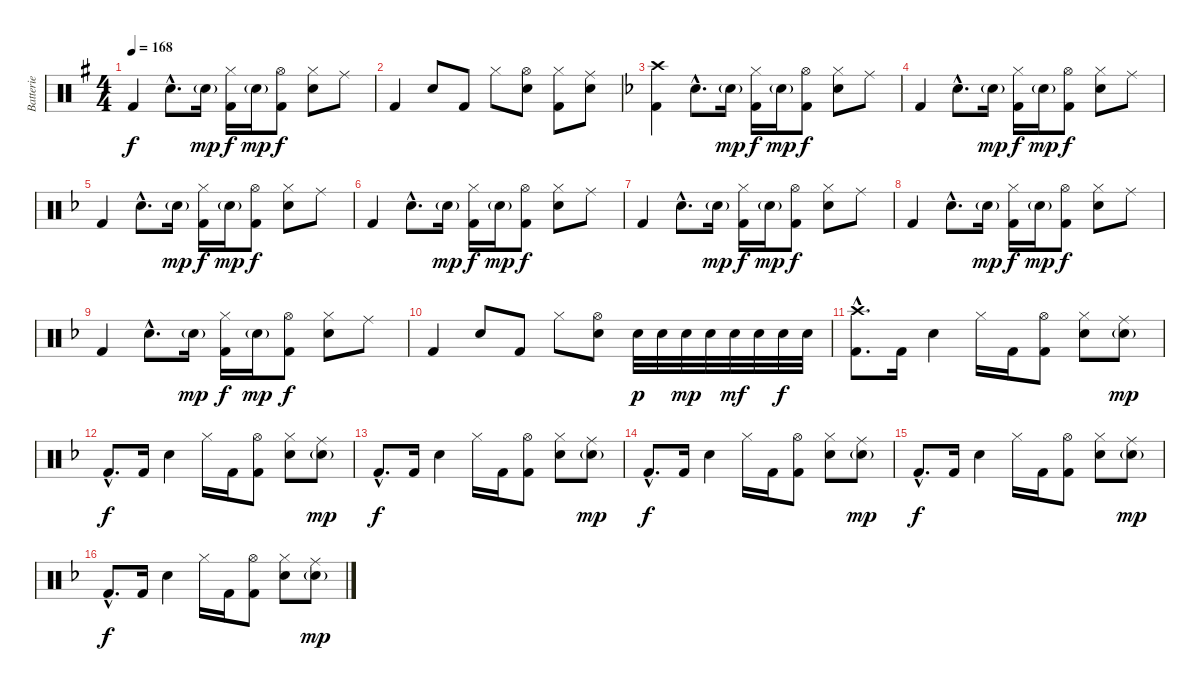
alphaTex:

\track ("Batterie" "Batterie") {instrument percussion}
\staff {score}
\articulation defaults
\ts (4 4)
\tempo 168
\clef neutral
\ks g "Kick (hit) 2".4{dy f} "Snare (hit) 2"{hac}.8{d} "Snare (hit) 2"{g}.16{dy mp}
("Hi-Hat (closed)" "Kick (hit) 2").16{dy f} "Snare (hit) 2"{g}.16{dy mp} ("Hi-Hat (open)" "Kick (hit) 2").8{dy f} ("Hi-Hat (closed)" "Snare (hit) 2").8 "Ride (middle)".8 |
"Kick (hit) 2".4 "Snare (hit) 2".8 "Kick (hit) 2".8 "Hi-Hat (closed)".8 ("Hi-Hat (open)" "Snare (hit) 2").8 ("Hi-Hat (closed)" "Kick (hit) 2").8 ("Ride (middle)" "Snare (hit) 2").8 |
\ks f
("Crash high (hit)" "Kick (hit) 2").4 "Snare (hit) 2"{hac}.8{d} "Snare (hit) 2"{g}.16{dy mp} ("Hi-Hat (closed)" "Kick (hit) 2").16{dy f} "Snare (hit) 2"{g}.16{dy mp} ("Hi-Hat (open)" "Kick (hit) 2").8{dy f} ("Hi-Hat (closed)" "Snare (hit) 2").8 "Ride (middle)".8 |
"Kick (hit) 2".4 "Snare (hit) 2"{hac}.8{d} "Snare (hit) 2"{g}.16{dy mp} ("Hi-Hat (closed)" "Kick (hit) 2").16{dy f} "Snare (hit) 2"{g}.16{dy mp} ("Hi-Hat (open)" "Kick (hit) 2").8{dy f} ("Hi-Hat (closed)" "Snare (hit) 2").8 "Ride (middle)".8 |
"Kick (hit) 2".4 "Snare (hit) 2"{hac}.8{d} "Snare (hit) 2"{g}.16{dy mp} ("Hi-Hat (closed)" "Kick (hit) 2").16{dy f} "Snare (hit) 2"{g}.16{dy mp} ("Hi-Hat (open)" "Kick (hit) 2").8{dy f} ("Hi-Hat (closed)" "Snare (hit) 2").8 "Ride (middle)".8 |
"Kick (hit) 2".4 "Snare (hit) 2"{hac}.8{d} "Snare (hit) 2"{g}.16{dy mp} ("Hi-Hat (closed)" "Kick (hit) 2").16{dy f} "Snare (hit) 2"{g}.16{dy mp} ("Hi-Hat (open)" "Kick (hit) 2").8{dy f} ("Hi-Hat (closed)" "Snare (hit) 2").8 "Ride (middle)".8 |
"Kick (hit) 2".4 "Snare (hit) 2"{hac}.8{d} "Snare (hit) 2"{g}.16{dy mp} ("Hi-Hat (closed)" "Kick (hit) 2").16{dy f} "Snare (hit) 2"{g}.16{dy mp} ("Hi-Hat (open)" "Kick (hit) 2").8{dy f} ("Hi-Hat (closed)" "Snare (hit) 2").8 "Ride (middle)".8 |
"Kick (hit) 2".4 "Snare (hit) 2"{hac}.8{d} "Snare (hit) 2"{g}.16{dy mp} ("Hi-Hat (closed)" "Kick (hit) 2").16{dy f} "Snare (hit) 2"{g}.16{dy mp} ("Hi-Hat (open)" "Kick (hit) 2").8{dy f} ("Hi-Hat (closed)" "Snare (hit) 2").8 "Ride (middle)".8 |
"Kick (hit) 2".4 "Snare (hit) 2"{hac}.8{d} "Snare (hit) 2"{g}.16{dy mp} ("Hi-Hat (closed)" "Kick (hit) 2").16{dy f} "Snare (hit) 2"{g}.16{dy mp} ("Hi-Hat (open)" "Kick (hit) 2").8{dy f} ("Hi-Hat (closed)" "Snare (hit) 2").8 "Ride (middle)".8 |
"Kick (hit) 2".4 "Snare (hit) 2".8 "Kick (hit) 2".8 "Hi-Hat (closed)".8 ("Hi-Hat (open)" "Snare (hit) 2").8 "Snare (hit) 2".32{dy p} "Snare (hit) 2".32 "Snare (hit) 2".32{dy mp} "Snare (hit) 2".32 "Snare (hit) 2".32{dy mf} "Snare (hit) 2".32 "Snare (hit) 2".32{dy f} "Snare (hit) 2".32 |
("Crash high (hit)"{hac} "Kick (hit) 2"{hac}).8{d} "Kick (hit) 2".16 "Snare (hit) 2".4 "Hi-Hat (closed)".16 "Kick (hit) 2".16 ("Hi-Hat (open)" "Kick (hit) 2").8 ("Hi-Hat (closed)" "Snare (hit) 2").8 ("Ride (middle)" "Snare (hit) 2"{g}).8{dy mp} |
"Kick (hit) 2"{hac}.8{d dy f} "Kick (hit) 2".16 "Snare (hit) 2".4 "Hi-Hat (closed)".16 "Kick (hit) 2".16 ("Hi-Hat (open)" "Kick (hit) 2").8 ("Hi-Hat (closed)" "Snare (hit) 2").8 ("Ride (middle)" "Snare (hit) 2"{g}).8{dy mp} |
"Kick (hit) 2"{hac}.8{d dy f} "Kick (hit) 2".16 "Snare (hit) 2".4 "Hi-Hat (closed)".16 "Kick (hit) 2".16 ("Hi-Hat (open)" "Kick (hit) 2").8 ("Hi-Hat (closed)" "Snare (hit) 2").8 ("Ride (middle)" "Snare (hit) 2"{g}).8{dy mp} |
"Kick (hit) 2"{hac}.8{d dy f} "Kick (hit) 2".16 "Snare (hit) 2".4 "Hi-Hat (closed)".16 "Kick (hit) 2".16 ("Hi-Hat (open)" "Kick (hit) 2").8 ("Hi-Hat (closed)" "Snare (hit) 2").8 ("Ride (middle)" "Snare (hit) 2"{g}).8{dy mp} |
"Kick (hit) 2"{hac}.8{d dy f} "Kick (hit) 2".16 "Snare (hit) 2".4 "Hi-Hat (closed)".16 "Kick (hit) 2".16 ("Hi-Hat (open)" "Kick (hit) 2").8 ("Hi-Hat (closed)" "Snare (hit) 2").8 ("Ride (middle)" "Snare (hit) 2"{g}).8{dy mp} |
"Kick (hit) 2"{hac}.8{d dy f} "Kick (hit) 2".16 "Snare (hit) 2".4 "Hi-Hat (closed)".16 "Kick (hit) 2".16 ("Hi-Hat (open)" "Kick (hit) 2").8 ("Hi-Hat (closed)" "Snare (hit) 2").8 ("Ride (middle)" "Snare (hit) 2"{g}).8{dy mp}
